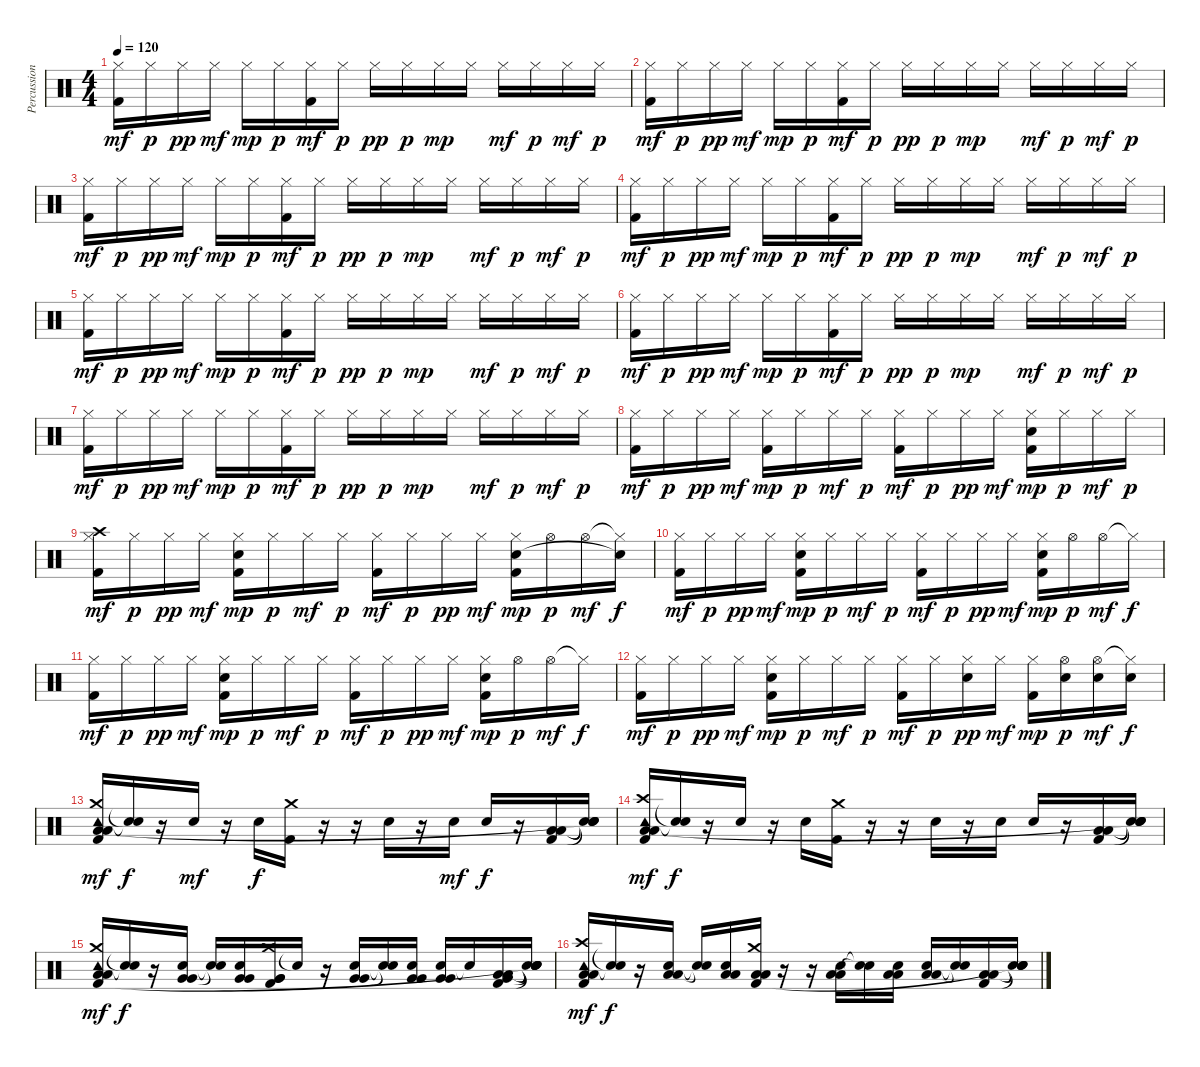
\track ("Percussion" "Percussion") {instrument percussion}
\staff {score}
\articulation defaults
\ts (4 4)
\tempo 120
\clef neutral
\ks c
("Hi-Hat (closed)" "Kick (hit) 2").16{dy mf} "Hi-Hat (closed)".16{dy p} "Hi-Hat (closed)".16{dy pp} "Hi-Hat (closed)".16{dy mf} "Hi-Hat (closed)".16{dy mp} "Hi-Hat (closed)".16{dy p} ("Hi-Hat (closed)" "Kick (hit) 2").16{dy mf} "Hi-Hat (closed)".16{dy p} "Hi-Hat (closed)".16{dy pp} "Hi-Hat (closed)".16{dy p} "Hi-Hat (closed)".16{dy mp} "Hi-Hat (closed)".16 "Hi-Hat (closed)".16{dy mf} "Hi-Hat (closed)".16{dy p} "Hi-Hat (closed)".16{dy mf} "Hi-Hat (closed)".16{dy p} |
("Hi-Hat (closed)" "Kick (hit) 2").16{dy mf} "Hi-Hat (closed)".16{dy p} "Hi-Hat (closed)".16{dy pp} "Hi-Hat (closed)".16{dy mf} "Hi-Hat (closed)".16{dy mp} "Hi-Hat (closed)".16{dy p} ("Hi-Hat (closed)" "Kick (hit) 2").16{dy mf} "Hi-Hat (closed)".16{dy p} "Hi-Hat (closed)".16{dy pp} "Hi-Hat (closed)".16{dy p} "Hi-Hat (closed)".16{dy mp} "Hi-Hat (closed)".16 "Hi-Hat (closed)".16{dy mf} "Hi-Hat (closed)".16{dy p} "Hi-Hat (closed)".16{dy mf} "Hi-Hat (closed)".16{dy p} |
("Hi-Hat (closed)" "Kick (hit) 2").16{dy mf} "Hi-Hat (closed)".16{dy p} "Hi-Hat (closed)".16{dy pp} "Hi-Hat (closed)".16{dy mf} "Hi-Hat (closed)".16{dy mp} "Hi-Hat (closed)".16{dy p} ("Hi-Hat (closed)" "Kick (hit) 2").16{dy mf} "Hi-Hat (closed)".16{dy p} "Hi-Hat (closed)".16{dy pp} "Hi-Hat (closed)".16{dy p} "Hi-Hat (closed)".16{dy mp} "Hi-Hat (closed)".16 "Hi-Hat (closed)".16{dy mf} "Hi-Hat (closed)".16{dy p} "Hi-Hat (closed)".16{dy mf} "Hi-Hat (closed)".16{dy p} |
("Hi-Hat (closed)" "Kick (hit) 2").16{dy mf} "Hi-Hat (closed)".16{dy p} "Hi-Hat (closed)".16{dy pp} "Hi-Hat (closed)".16{dy mf} "Hi-Hat (closed)".16{dy mp} "Hi-Hat (closed)".16{dy p} ("Hi-Hat (closed)" "Kick (hit) 2").16{dy mf} "Hi-Hat (closed)".16{dy p} "Hi-Hat (closed)".16{dy pp} "Hi-Hat (closed)".16{dy p} "Hi-Hat (closed)".16{dy mp} "Hi-Hat (closed)".16 "Hi-Hat (closed)".16{dy mf} "Hi-Hat (closed)".16{dy p} "Hi-Hat (closed)".16{dy mf} "Hi-Hat (closed)".16{dy p} |
("Hi-Hat (closed)" "Kick (hit) 2").16{dy mf} "Hi-Hat (closed)".16{dy p} "Hi-Hat (closed)".16{dy pp} "Hi-Hat (closed)".16{dy mf} "Hi-Hat (closed)".16{dy mp} "Hi-Hat (closed)".16{dy p} ("Hi-Hat (closed)" "Kick (hit) 2").16{dy mf} "Hi-Hat (closed)".16{dy p} "Hi-Hat (closed)".16{dy pp} "Hi-Hat (closed)".16{dy p} "Hi-Hat (closed)".16{dy mp} "Hi-Hat (closed)".16 "Hi-Hat (closed)".16{dy mf} "Hi-Hat (closed)".16{dy p} "Hi-Hat (closed)".16{dy mf} "Hi-Hat (closed)".16{dy p} |
("Hi-Hat (closed)" "Kick (hit) 2").16{dy mf} "Hi-Hat (closed)".16{dy p} "Hi-Hat (closed)".16{dy pp} "Hi-Hat (closed)".16{dy mf} "Hi-Hat (closed)".16{dy mp} "Hi-Hat (closed)".16{dy p} ("Hi-Hat (closed)" "Kick (hit) 2").16{dy mf} "Hi-Hat (closed)".16{dy p} "Hi-Hat (closed)".16{dy pp} "Hi-Hat (closed)".16{dy p} "Hi-Hat (closed)".16{dy mp} "Hi-Hat (closed)".16 "Hi-Hat (closed)".16{dy mf} "Hi-Hat (closed)".16{dy p} "Hi-Hat (closed)".16{dy mf} "Hi-Hat (closed)".16{dy p} |
("Hi-Hat (closed)" "Kick (hit) 2").16{dy mf} "Hi-Hat (closed)".16{dy p} "Hi-Hat (closed)".16{dy pp} "Hi-Hat (closed)".16{dy mf} "Hi-Hat (closed)".16{dy mp} "Hi-Hat (closed)".16{dy p} ("Hi-Hat (closed)" "Kick (hit) 2").16{dy mf} "Hi-Hat (closed)".16{dy p} "Hi-Hat (closed)".16{dy pp} "Hi-Hat (closed)".16{dy p} "Hi-Hat (closed)".16{dy mp} "Hi-Hat (closed)".16 "Hi-Hat (closed)".16{dy mf} "Hi-Hat (closed)".16{dy p} "Hi-Hat (closed)".16{dy mf} "Hi-Hat (closed)".16{dy p} |
("Hi-Hat (closed)" "Kick (hit) 2").16{dy mf} "Hi-Hat (closed)".16{dy p} "Hi-Hat (closed)".16{dy pp} "Hi-Hat (closed)".16{dy mf} ("Hi-Hat (closed)" "Kick (hit) 2").16{dy mp} "Hi-Hat (closed)".16{dy p} "Hi-Hat (closed)".16{dy mf} "Hi-Hat (closed)".16{dy p} ("Hi-Hat (closed)" "Kick (hit) 2").16{dy mf} "Hi-Hat (closed)".16{dy p} "Hi-Hat (closed)".16{dy pp} "Hi-Hat (closed)".16{dy mf} ("Hi-Hat (closed)" "Electric Snare (hit)" "Kick (hit) 2").16{dy mp} "Hi-Hat (closed)".16{dy p} "Hi-Hat (closed)".16{dy mf} "Hi-Hat (closed)".16{dy p} |
("Hi-Hat (closed)" "Crash high (hit)" "Kick (hit) 2").16{dy mf} "Hi-Hat (closed)".16{dy p} "Hi-Hat (closed)".16{dy pp} "Hi-Hat (closed)".16{dy mf} ("Hi-Hat (closed)" "Electric Snare (hit)" "Kick (hit) 2").16{dy mp} "Hi-Hat (closed)".16{dy p} "Hi-Hat (closed)".16{dy mf} "Hi-Hat (closed)".16{dy p} ("Hi-Hat (closed)" "Kick (hit) 2").16{dy mf} "Hi-Hat (closed)".16{dy p} "Hi-Hat (closed)".16{dy pp} "Hi-Hat (closed)".16{dy mf} ("Hi-Hat (closed)" "Electric Snare (hit)" "Kick (hit) 2").16{dy mp} "Hi-Hat (open)".16{dy p} "Hi-Hat (open)".16{dy mf} ("Hi-Hat (closed)"{t} "Snare (hit)"{t}).16{dy f} |
("Hi-Hat (closed)" "Kick (hit) 2").16{dy mf} "Hi-Hat (closed)".16{dy p} "Hi-Hat (closed)".16{dy pp} "Hi-Hat (closed)".16{dy mf} ("Hi-Hat (closed)" "Electric Snare (hit)" "Kick (hit) 2").16{dy mp} "Hi-Hat (closed)".16{dy p} "Hi-Hat (closed)".16{dy mf} "Hi-Hat (closed)".16{dy p} ("Hi-Hat (closed)" "Kick (hit) 2").16{dy mf} "Hi-Hat (closed)".16{dy p} "Hi-Hat (closed)".16{dy pp} "Hi-Hat (closed)".16{dy mf} ("Hi-Hat (closed)" "Electric Snare (hit)" "Kick (hit) 2").16{dy mp} "Hi-Hat (open)".16{dy p} "Hi-Hat (open)".16{dy mf} "Hi-Hat (closed)"{t}.16{dy f} |
("Hi-Hat (closed)" "Kick (hit) 2").16{dy mf} "Hi-Hat (closed)".16{dy p} "Hi-Hat (closed)".16{dy pp} "Hi-Hat (closed)".16{dy mf} ("Hi-Hat (closed)" "Electric Snare (hit)" "Kick (hit) 2").16{dy mp} "Hi-Hat (closed)".16{dy p} "Hi-Hat (closed)".16{dy mf} "Hi-Hat (closed)".16{dy p} ("Hi-Hat (closed)" "Kick (hit) 2").16{dy mf} "Hi-Hat (closed)".16{dy p} "Hi-Hat (closed)".16{dy pp} "Hi-Hat (closed)".16{dy mf} ("Hi-Hat (closed)" "Electric Snare (hit)" "Kick (hit) 2").16{dy mp} "Hi-Hat (open)".16{dy p} "Hi-Hat (open)".16{dy mf} "Hi-Hat (closed)"{t}.16{dy f} |
("Hi-Hat (closed)" "Kick (hit) 2").16{dy mf} "Hi-Hat (closed)".16{dy p} "Hi-Hat (closed)".16{dy pp} "Hi-Hat (closed)".16{dy mf} ("Hi-Hat (closed)" "Electric Snare (hit)" "Kick (hit) 2").16{dy mp} "Hi-Hat (closed)".16{dy p} "Hi-Hat (closed)".16{dy mf} "Hi-Hat (closed)".16{dy p} ("Hi-Hat (closed)" "Kick (hit) 2").16{dy mf} "Hi-Hat (closed)".16{dy p} ("Hi-Hat (closed)" "Electric Snare (hit)").16{dy pp} "Hi-Hat (closed)".16{dy mf} ("Hi-Hat (closed)" "Kick (hit) 2").16{dy mp} ("Hi-Hat (open)" "Electric Snare (hit)").16{dy p} ("Hi-Hat (open)" "Electric Snare (hit)").16{dy mf} ("Hi-Hat (closed)"{t} "Electric Snare (hit)").16{dy f} |
("Crash medium (hit)" "Tambourine (hit)" "Low Floor Tom (hit)" "Low Floor Tom (hit)" "Kick (hit) 2").16{dy mf} ("Snare (hit)"{t} "Snare (hit)"{t}).16{dy f} r.16 "Electric Snare (hit)".16{dy mf} r.16 "Electric Snare (hit)".16{dy f} ("Crash medium (hit)" "Kick (hit) 2").16 r.16 r.16 "Electric Snare (hit)".16 r.16 "Electric Snare (hit)".16{dy mf} "Electric Snare (hit)".16{dy f} r.16 ("Low Floor Tom (hit)" "Low Floor Tom (hit)" "Kick (hit) 2").16 ("Snare (hit)"{t} "Snare (hit)"{t} "Snare (hit)"{t} "Snare (hit)"{t}).16 |
("Crash high (hit)" "Tambourine (hit)" "Low Floor Tom (hit)" "Low Floor Tom (hit)" "Kick (hit) 2").16{dy mf} ("Snare (hit)"{t} "Snare (hit)"{t}).16{dy f} r.16 "Electric Snare (hit)".16 r.16 "Electric Snare (hit)".16 ("Crash medium (hit)" "Kick (hit) 2").16 r.16 r.16 "Electric Snare (hit)".16 r.16 "Electric Snare (hit)".16 "Electric Snare (hit)".16 r.16 ("Low Floor Tom (hit)" "Low Floor Tom (hit)" "Kick (hit) 2").16 ("Snare (hit)"{t} "Snare (hit)"{t} "Snare (hit)"{t} "Snare (hit)"{t}).16 |
("Crash medium (hit)" "Tambourine (hit)" "Low Floor Tom (hit)" "Low Floor Tom (hit)" "Kick (hit) 2").16{dy mf} ("Snare (hit)"{t} "Snare (hit)"{t}).16{dy f} r.16 ("Electric Snare (hit)" "Very Low Tom (hit)" "Very Low Tom (hit)").16 ("Snare (hit)"{t} "Snare (hit)"{t}).16 ("Electric Snare (hit)" "Very Low Tom (hit)" "Very Low Tom (hit)").16 ("Crash medium (hit)" "Very Low Tom (hit)" "Very Low Tom (hit)" "Kick (hit) 2").16 "Snare (hit)"{t}.16 r.16 ("Electric Snare (hit)" "Very Low Tom (hit)" "Very Low Tom (hit)").16 ("Snare (hit)"{t} "Snare (hit)"{t}).16 ("Electric Snare (hit)" "Very Low Tom (hit)" "Very Low Tom (hit)").16 ("Electric Snare (hit)" "Very Low Tom (hit)" "Very Low Tom (hit)").16 "Snare (hit)"{t}.16 ("Low Floor Tom (hit)" "Low Floor Tom (hit)" "Very Low Tom (hit)" "Kick (hit) 2").16 ("Snare (hit)"{t} "Snare (hit)"{t} "Snare (hit)"{t} "Snare (hit)"{t} "Snare (hit)"{t}).16 |
("Crash high (hit)" "Tambourine (hit)" "Low Floor Tom (hit)" "Low Floor Tom (hit)" "Kick (hit) 2").16{dy mf} ("Snare (hit)"{t} "Snare (hit)"{t}).16{dy f} r.16 ("Electric Snare (hit)" "Low Floor Tom (hit)" "Low Floor Tom (hit)").16 ("Snare (hit)"{t} "Snare (hit)"{t}).16 ("Electric Snare (hit)" "Low Floor Tom (hit)" "Low Floor Tom (hit)").16 ("Crash medium (hit)" "Low Floor Tom (hit)" "Low Floor Tom (hit)" "Kick (hit) 2").16 r.16 r.16 ("Electric Snare (hit)" "Low Floor Tom (hit)" "Low Floor Tom (hit)").16 ("Snare (hit)"{t} "Snare (hit)"{t}).16 ("Electric Snare (hit)" "Low Floor Tom (hit)" "Low Floor Tom (hit)").16 ("Electric Snare (hit)" "Low Floor Tom (hit)" "Low Floor Tom (hit)").16 ("Snare (hit)"{t} "Snare (hit)"{t}).16 ("Low Floor Tom (hit)" "Low Floor Tom (hit)" "Kick (hit) 2").16 ("Snare (hit)"{t} "Snare (hit)"{t} "Snare (hit)"{t} "Snare (hit)"{t}).16
